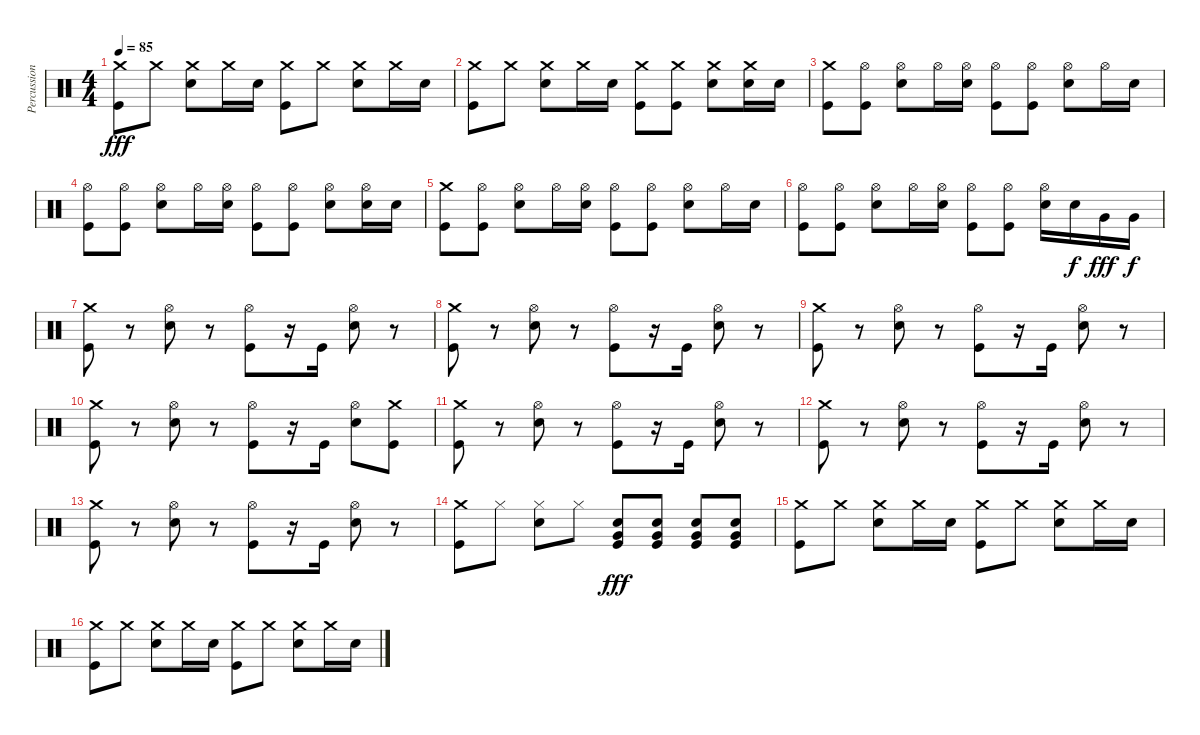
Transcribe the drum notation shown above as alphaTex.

\track ("Percussion" "Percussion") {instrument percussion}
\staff {score}
\articulation defaults
\ts (4 4)
\tempo 85
\clef neutral
\ks c
("Crash medium (hit)" "Kick (hit)").8{dy fff} "Crash medium (hit)".8 ("Crash medium (hit)" "Electric Snare (hit)").8 "Crash medium (hit)".16 "Electric Snare (hit)".16 ("Crash medium (hit)" "Kick (hit)").8 "Crash medium (hit)".8 ("Crash medium (hit)" "Electric Snare (hit)").8 "Crash medium (hit)".16 "Electric Snare (hit)".16 |
("Crash medium (hit)" "Kick (hit)").8 "Crash medium (hit)".8 ("Crash medium (hit)" "Electric Snare (hit)").8 "Crash medium (hit)".16 "Electric Snare (hit)".16 ("Crash medium (hit)" "Kick (hit)").8 ("Crash medium (hit)" "Kick (hit)").8 ("Crash medium (hit)" "Electric Snare (hit)").8 ("Crash medium (hit)" "Electric Snare (hit)").16 "Electric Snare (hit)".16 |
("Crash medium (hit)" "Kick (hit)").8 ("Hi-Hat (open)" "Kick (hit)").8 ("Hi-Hat (open)" "Electric Snare (hit)").8 "Hi-Hat (open)".16 ("Hi-Hat (open)" "Electric Snare (hit)").16 ("Hi-Hat (open)" "Kick (hit)").8 ("Hi-Hat (open)" "Kick (hit)").8 ("Hi-Hat (open)" "Electric Snare (hit)").8 "Hi-Hat (open)".16 "Electric Snare (hit)".16 |
("Hi-Hat (open)" "Kick (hit)").8 ("Hi-Hat (open)" "Kick (hit)").8 ("Hi-Hat (open)" "Electric Snare (hit)").8 "Hi-Hat (open)".16 ("Hi-Hat (open)" "Electric Snare (hit)").16 ("Hi-Hat (open)" "Kick (hit)").8 ("Hi-Hat (open)" "Kick (hit)").8 ("Hi-Hat (open)" "Electric Snare (hit)").8 ("Hi-Hat (open)" "Electric Snare (hit)").16 "Electric Snare (hit)".16 |
("Crash medium (hit)" "Kick (hit)").8 ("Hi-Hat (open)" "Kick (hit)").8 ("Hi-Hat (open)" "Electric Snare (hit)").8 "Hi-Hat (open)".16 ("Hi-Hat (open)" "Electric Snare (hit)").16 ("Hi-Hat (open)" "Kick (hit)").8 ("Hi-Hat (open)" "Kick (hit)").8 ("Hi-Hat (open)" "Electric Snare (hit)").8 "Hi-Hat (open)".16 "Electric Snare (hit)".16 |
("Hi-Hat (open)" "Kick (hit)").8 ("Hi-Hat (open)" "Kick (hit)").8 ("Hi-Hat (open)" "Electric Snare (hit)").8 "Hi-Hat (open)".16 ("Hi-Hat (open)" "Electric Snare (hit)").16 ("Hi-Hat (open)" "Kick (hit)").8 ("Hi-Hat (open)" "Kick (hit)").8 ("Hi-Hat (open)" "Electric Snare (hit)").16 "Electric Snare (hit)".16{dy f} "Very Low Tom (hit)".16{dy fff} "Very Low Tom (hit)".16{dy f} |
("Crash medium (hit)" "Kick (hit)").8 r.8 ("Hi-Hat (open)" "Electric Snare (hit)").8 r.8 ("Hi-Hat (open)" "Kick (hit)").8 r.16 "Kick (hit)".16 ("Hi-Hat (open)" "Electric Snare (hit)").8 r.8 |
("Crash medium (hit)" "Kick (hit)").8 r.8 ("Hi-Hat (open)" "Electric Snare (hit)").8 r.8 ("Hi-Hat (open)" "Kick (hit)").8 r.16 "Kick (hit)".16 ("Hi-Hat (open)" "Electric Snare (hit)").8 r.8 |
("Crash medium (hit)" "Kick (hit)").8 r.8 ("Hi-Hat (open)" "Electric Snare (hit)").8 r.8 ("Hi-Hat (open)" "Kick (hit)").8 r.16 "Kick (hit)".16 ("Hi-Hat (open)" "Electric Snare (hit)").8 r.8 |
("Crash medium (hit)" "Kick (hit)").8 r.8 ("Hi-Hat (open)" "Electric Snare (hit)").8 r.8 ("Hi-Hat (open)" "Kick (hit)").8 r.16 "Kick (hit)".16 ("Hi-Hat (open)" "Electric Snare (hit)").8 ("Crash medium (hit)" "Kick (hit)").8 |
("Crash medium (hit)" "Kick (hit)").8 r.8 ("Hi-Hat (open)" "Electric Snare (hit)").8 r.8 ("Hi-Hat (open)" "Kick (hit)").8 r.16 "Kick (hit)".16 ("Hi-Hat (open)" "Electric Snare (hit)").8 r.8 |
("Crash medium (hit)" "Kick (hit)").8 r.8 ("Hi-Hat (open)" "Electric Snare (hit)").8 r.8 ("Hi-Hat (open)" "Kick (hit)").8 r.16 "Kick (hit)".16 ("Hi-Hat (open)" "Electric Snare (hit)").8 r.8 |
("Crash medium (hit)" "Kick (hit)").8 r.8 ("Hi-Hat (open)" "Electric Snare (hit)").8 r.8 ("Hi-Hat (open)" "Kick (hit)").8 r.16 "Kick (hit)".16 ("Hi-Hat (open)" "Electric Snare (hit)").8 r.8 |
("Crash medium (hit)" "Kick (hit)").8 "Hi-Hat (closed)".8 ("Hi-Hat (closed)" "Electric Snare (hit)").8 "Hi-Hat (closed)".8 ("Very Low Tom (hit)" "Kick (hit)" "Electric Snare (hit)").8{dy fff} ("Very Low Tom (hit)" "Kick (hit)" "Electric Snare (hit)").8 ("Very Low Tom (hit)" "Kick (hit)" "Electric Snare (hit)").8 ("Very Low Tom (hit)" "Kick (hit)" "Electric Snare (hit)").8 |
("Crash medium (hit)" "Kick (hit)").8 "Crash medium (hit)".8 ("Crash medium (hit)" "Electric Snare (hit)").8 "Crash medium (hit)".16 "Electric Snare (hit)".16 ("Crash medium (hit)" "Kick (hit)").8 "Crash medium (hit)".8 ("Crash medium (hit)" "Electric Snare (hit)").8 "Crash medium (hit)".16 "Electric Snare (hit)".16 |
("Crash medium (hit)" "Kick (hit)").8 "Crash medium (hit)".8 ("Crash medium (hit)" "Electric Snare (hit)").8 "Crash medium (hit)".16 "Electric Snare (hit)".16 ("Crash medium (hit)" "Kick (hit)").8 "Crash medium (hit)".8 ("Crash medium (hit)" "Electric Snare (hit)").8 "Crash medium (hit)".16 "Electric Snare (hit)".16
